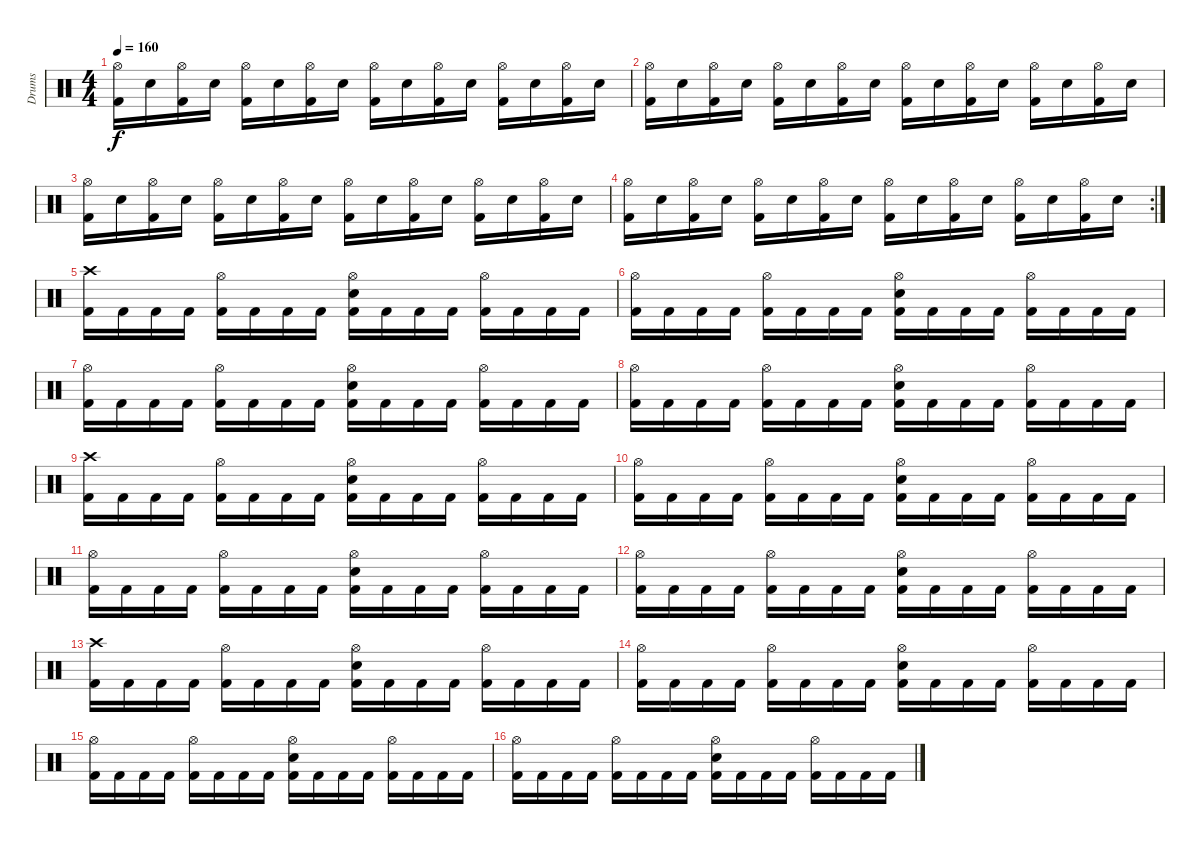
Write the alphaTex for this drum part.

\track ("Drums" "Drums") {instrument percussion}
\staff {score}
\articulation defaults
\ts (4 4)
\tempo 160
\clef neutral
\ks c
("Hi-Hat (open)" "Kick (hit) 2").16{dy f} "Snare (hit) 2".16 ("Hi-Hat (open)" "Kick (hit) 2").16 "Snare (hit) 2".16 ("Hi-Hat (open)" "Kick (hit) 2").16 "Snare (hit) 2".16 ("Hi-Hat (open)" "Kick (hit) 2").16 "Snare (hit) 2".16 ("Hi-Hat (open)" "Kick (hit) 2").16 "Snare (hit) 2".16 ("Hi-Hat (open)" "Kick (hit) 2").16 "Snare (hit) 2".16 ("Hi-Hat (open)" "Kick (hit) 2").16 "Snare (hit) 2".16 ("Hi-Hat (open)" "Kick (hit) 2").16 "Snare (hit) 2".16 |
("Hi-Hat (open)" "Kick (hit) 2").16 "Snare (hit) 2".16 ("Hi-Hat (open)" "Kick (hit) 2").16 "Snare (hit) 2".16 ("Hi-Hat (open)" "Kick (hit) 2").16 "Snare (hit) 2".16 ("Hi-Hat (open)" "Kick (hit) 2").16 "Snare (hit) 2".16 ("Hi-Hat (open)" "Kick (hit) 2").16 "Snare (hit) 2".16 ("Hi-Hat (open)" "Kick (hit) 2").16 "Snare (hit) 2".16 ("Hi-Hat (open)" "Kick (hit) 2").16 "Snare (hit) 2".16 ("Hi-Hat (open)" "Kick (hit) 2").16 "Snare (hit) 2".16 |
("Hi-Hat (open)" "Kick (hit) 2").16 "Snare (hit) 2".16 ("Hi-Hat (open)" "Kick (hit) 2").16 "Snare (hit) 2".16 ("Hi-Hat (open)" "Kick (hit) 2").16 "Snare (hit) 2".16 ("Hi-Hat (open)" "Kick (hit) 2").16 "Snare (hit) 2".16 ("Hi-Hat (open)" "Kick (hit) 2").16 "Snare (hit) 2".16 ("Hi-Hat (open)" "Kick (hit) 2").16 "Snare (hit) 2".16 ("Hi-Hat (open)" "Kick (hit) 2").16 "Snare (hit) 2".16 ("Hi-Hat (open)" "Kick (hit) 2").16 "Snare (hit) 2".16 |
\rc 2
("Hi-Hat (open)" "Kick (hit) 2").16 "Snare (hit) 2".16 ("Hi-Hat (open)" "Kick (hit) 2").16 "Snare (hit) 2".16 ("Hi-Hat (open)" "Kick (hit) 2").16 "Snare (hit) 2".16 ("Hi-Hat (open)" "Kick (hit) 2").16 "Snare (hit) 2".16 ("Hi-Hat (open)" "Kick (hit) 2").16 "Snare (hit) 2".16 ("Hi-Hat (open)" "Kick (hit) 2").16 "Snare (hit) 2".16 ("Hi-Hat (open)" "Kick (hit) 2").16 "Snare (hit) 2".16 ("Hi-Hat (open)" "Kick (hit) 2").16 "Snare (hit) 2".16 |
("Crash high (hit)" "Kick (hit) 2").16 "Kick (hit) 2".16 "Kick (hit) 2".16 "Kick (hit) 2".16 ("Hi-Hat (open)" "Kick (hit) 2").16 "Kick (hit) 2".16 "Kick (hit) 2".16 "Kick (hit) 2".16 ("Hi-Hat (open)" "Snare (hit) 2" "Kick (hit) 2").16 "Kick (hit) 2".16 "Kick (hit) 2".16 "Kick (hit) 2".16 ("Hi-Hat (open)" "Kick (hit) 2").16 "Kick (hit) 2".16 "Kick (hit) 2".16 "Kick (hit) 2".16 |
("Hi-Hat (open)" "Kick (hit) 2").16 "Kick (hit) 2".16 "Kick (hit) 2".16 "Kick (hit) 2".16 ("Hi-Hat (open)" "Kick (hit) 2").16 "Kick (hit) 2".16 "Kick (hit) 2".16 "Kick (hit) 2".16 ("Hi-Hat (open)" "Snare (hit) 2" "Kick (hit) 2").16 "Kick (hit) 2".16 "Kick (hit) 2".16 "Kick (hit) 2".16 ("Hi-Hat (open)" "Kick (hit) 2").16 "Kick (hit) 2".16 "Kick (hit) 2".16 "Kick (hit) 2".16 |
("Hi-Hat (open)" "Kick (hit) 2").16 "Kick (hit) 2".16 "Kick (hit) 2".16 "Kick (hit) 2".16 ("Hi-Hat (open)" "Kick (hit) 2").16 "Kick (hit) 2".16 "Kick (hit) 2".16 "Kick (hit) 2".16 ("Hi-Hat (open)" "Snare (hit) 2" "Kick (hit) 2").16 "Kick (hit) 2".16 "Kick (hit) 2".16 "Kick (hit) 2".16 ("Hi-Hat (open)" "Kick (hit) 2").16 "Kick (hit) 2".16 "Kick (hit) 2".16 "Kick (hit) 2".16 |
("Hi-Hat (open)" "Kick (hit) 2").16 "Kick (hit) 2".16 "Kick (hit) 2".16 "Kick (hit) 2".16 ("Hi-Hat (open)" "Kick (hit) 2").16 "Kick (hit) 2".16 "Kick (hit) 2".16 "Kick (hit) 2".16 ("Hi-Hat (open)" "Snare (hit) 2" "Kick (hit) 2").16 "Kick (hit) 2".16 "Kick (hit) 2".16 "Kick (hit) 2".16 ("Hi-Hat (open)" "Kick (hit) 2").16 "Kick (hit) 2".16 "Kick (hit) 2".16 "Kick (hit) 2".16 |
("Crash high (hit)" "Kick (hit) 2").16 "Kick (hit) 2".16 "Kick (hit) 2".16 "Kick (hit) 2".16 ("Hi-Hat (open)" "Kick (hit) 2").16 "Kick (hit) 2".16 "Kick (hit) 2".16 "Kick (hit) 2".16 ("Hi-Hat (open)" "Snare (hit) 2" "Kick (hit) 2").16 "Kick (hit) 2".16 "Kick (hit) 2".16 "Kick (hit) 2".16 ("Hi-Hat (open)" "Kick (hit) 2").16 "Kick (hit) 2".16 "Kick (hit) 2".16 "Kick (hit) 2".16 |
("Hi-Hat (open)" "Kick (hit) 2").16 "Kick (hit) 2".16 "Kick (hit) 2".16 "Kick (hit) 2".16 ("Hi-Hat (open)" "Kick (hit) 2").16 "Kick (hit) 2".16 "Kick (hit) 2".16 "Kick (hit) 2".16 ("Hi-Hat (open)" "Snare (hit) 2" "Kick (hit) 2").16 "Kick (hit) 2".16 "Kick (hit) 2".16 "Kick (hit) 2".16 ("Hi-Hat (open)" "Kick (hit) 2").16 "Kick (hit) 2".16 "Kick (hit) 2".16 "Kick (hit) 2".16 |
("Hi-Hat (open)" "Kick (hit) 2").16 "Kick (hit) 2".16 "Kick (hit) 2".16 "Kick (hit) 2".16 ("Hi-Hat (open)" "Kick (hit) 2").16 "Kick (hit) 2".16 "Kick (hit) 2".16 "Kick (hit) 2".16 ("Hi-Hat (open)" "Snare (hit) 2" "Kick (hit) 2").16 "Kick (hit) 2".16 "Kick (hit) 2".16 "Kick (hit) 2".16 ("Hi-Hat (open)" "Kick (hit) 2").16 "Kick (hit) 2".16 "Kick (hit) 2".16 "Kick (hit) 2".16 |
("Hi-Hat (open)" "Kick (hit) 2").16 "Kick (hit) 2".16 "Kick (hit) 2".16 "Kick (hit) 2".16 ("Hi-Hat (open)" "Kick (hit) 2").16 "Kick (hit) 2".16 "Kick (hit) 2".16 "Kick (hit) 2".16 ("Hi-Hat (open)" "Snare (hit) 2" "Kick (hit) 2").16 "Kick (hit) 2".16 "Kick (hit) 2".16 "Kick (hit) 2".16 ("Hi-Hat (open)" "Kick (hit) 2").16 "Kick (hit) 2".16 "Kick (hit) 2".16 "Kick (hit) 2".16 |
("Crash high (hit)" "Kick (hit) 2").16 "Kick (hit) 2".16 "Kick (hit) 2".16 "Kick (hit) 2".16 ("Hi-Hat (open)" "Kick (hit) 2").16 "Kick (hit) 2".16 "Kick (hit) 2".16 "Kick (hit) 2".16 ("Hi-Hat (open)" "Snare (hit) 2" "Kick (hit) 2").16 "Kick (hit) 2".16 "Kick (hit) 2".16 "Kick (hit) 2".16 ("Hi-Hat (open)" "Kick (hit) 2").16 "Kick (hit) 2".16 "Kick (hit) 2".16 "Kick (hit) 2".16 |
("Hi-Hat (open)" "Kick (hit) 2").16 "Kick (hit) 2".16 "Kick (hit) 2".16 "Kick (hit) 2".16 ("Hi-Hat (open)" "Kick (hit) 2").16 "Kick (hit) 2".16 "Kick (hit) 2".16 "Kick (hit) 2".16 ("Hi-Hat (open)" "Snare (hit) 2" "Kick (hit) 2").16 "Kick (hit) 2".16 "Kick (hit) 2".16 "Kick (hit) 2".16 ("Hi-Hat (open)" "Kick (hit) 2").16 "Kick (hit) 2".16 "Kick (hit) 2".16 "Kick (hit) 2".16 |
("Hi-Hat (open)" "Kick (hit) 2").16 "Kick (hit) 2".16 "Kick (hit) 2".16 "Kick (hit) 2".16 ("Hi-Hat (open)" "Kick (hit) 2").16 "Kick (hit) 2".16 "Kick (hit) 2".16 "Kick (hit) 2".16 ("Hi-Hat (open)" "Snare (hit) 2" "Kick (hit) 2").16 "Kick (hit) 2".16 "Kick (hit) 2".16 "Kick (hit) 2".16 ("Hi-Hat (open)" "Kick (hit) 2").16 "Kick (hit) 2".16 "Kick (hit) 2".16 "Kick (hit) 2".16 |
("Hi-Hat (open)" "Kick (hit) 2").16 "Kick (hit) 2".16 "Kick (hit) 2".16 "Kick (hit) 2".16 ("Hi-Hat (open)" "Kick (hit) 2").16 "Kick (hit) 2".16 "Kick (hit) 2".16 "Kick (hit) 2".16 ("Hi-Hat (open)" "Snare (hit) 2" "Kick (hit) 2").16 "Kick (hit) 2".16 "Kick (hit) 2".16 "Kick (hit) 2".16 ("Hi-Hat (open)" "Kick (hit) 2").16 "Kick (hit) 2".16 "Kick (hit) 2".16 "Kick (hit) 2".16
